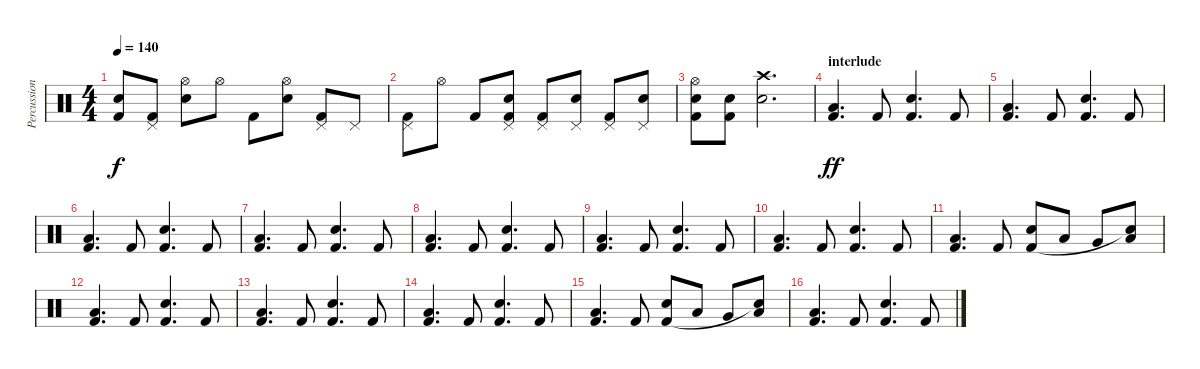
\track ("Percussions" "Percussion") {instrument percussion}
\staff {score}
\articulation defaults
\ts (4 4)
\tempo 140
\clef neutral
\ks c
("Snare (hit)"{t} "Kick (hit) 2").8{dy f} ("Pedal Hi-Hat (hit)" "Kick (hit) 2").8 ("Hi-Hat (open)" "Snare (hit) 2").8 "Hi-Hat (open)".8 "Kick (hit) 2".8 ("Hi-Hat (open)" "Snare (hit) 2").8 ("Pedal Hi-Hat (hit)" "Kick (hit) 2").8 "Pedal Hi-Hat (hit)".8 |
("Pedal Hi-Hat (hit)" "Kick (hit) 2").8 "Hi-Hat (open)".8 "Kick (hit) 2".8 ("Pedal Hi-Hat (hit)" "Snare (hit) 2" "Kick (hit) 2").8 ("Pedal Hi-Hat (hit)" "Kick (hit) 2").8 ("Pedal Hi-Hat (hit)" "Snare (hit) 2").8 ("Pedal Hi-Hat (hit)" "Kick (hit) 2").8 ("Pedal Hi-Hat (hit)" "Snare (hit) 2").8 |
("Hi-Hat (open)" "Snare (hit) 2" "Kick (hit) 2").8 ("Snare (hit) 2" "Kick (hit) 2").8 ("Crash high (hit)" "Electric Snare (hit)").2{d} |
\section ("" "interlude")
("Low Floor Tom (hit)" "Kick (hit) 2").4{d dy ff} "Kick (hit) 2".8 ("Snare (hit) 2" "Kick (hit) 2").4{d} "Kick (hit) 2".8 |
("Low Floor Tom (hit)" "Kick (hit) 2").4{d} "Kick (hit) 2".8 ("Snare (hit) 2" "Kick (hit) 2").4{d} "Kick (hit) 2".8 |
("Low Floor Tom (hit)" "Kick (hit) 2").4{d} "Kick (hit) 2".8 ("Snare (hit) 2" "Kick (hit) 2").4{d} "Kick (hit) 2".8 |
("Low Floor Tom (hit)" "Kick (hit) 2").4{d} "Kick (hit) 2".8 ("Snare (hit) 2" "Kick (hit) 2").4{d} "Kick (hit) 2".8 |
("Low Floor Tom (hit)" "Kick (hit) 2").4{d} "Kick (hit) 2".8 ("Snare (hit) 2" "Kick (hit) 2").4{d} "Kick (hit) 2".8 |
("Low Floor Tom (hit)" "Kick (hit) 2").4{d} "Kick (hit) 2".8 ("Snare (hit) 2" "Kick (hit) 2").4{d} "Kick (hit) 2".8 |
("Low Floor Tom (hit)" "Kick (hit) 2").4{d} "Kick (hit) 2".8 ("Snare (hit) 2" "Kick (hit) 2").4{d} "Kick (hit) 2".8 |
("Low Floor Tom (hit)" "Kick (hit) 2").4{d} "Kick (hit) 2".8 ("Snare (hit) 2" "Kick (hit) 2").8 "Low Tom (hit)".8 "Very Low Tom (hit)".8 ("Low Floor Tom (hit)" "Snare (hit)"{t}).8 |
("Low Floor Tom (hit)" "Kick (hit) 2").4{d} "Kick (hit) 2".8 ("Snare (hit) 2" "Kick (hit) 2").4{d} "Kick (hit) 2".8 |
("Low Floor Tom (hit)" "Kick (hit) 2").4{d} "Kick (hit) 2".8 ("Snare (hit) 2" "Kick (hit) 2").4{d} "Kick (hit) 2".8 |
("Low Floor Tom (hit)" "Kick (hit) 2").4{d} "Kick (hit) 2".8 ("Snare (hit) 2" "Kick (hit) 2").4{d} "Kick (hit) 2".8 |
("Low Floor Tom (hit)" "Kick (hit) 2").4{d} "Kick (hit) 2".8 ("Snare (hit) 2" "Kick (hit) 2").8 "Low Tom (hit)".8 "Very Low Tom (hit)".8 ("Low Floor Tom (hit)" "Snare (hit)"{t}).8 |
("Low Floor Tom (hit)" "Kick (hit) 2").4{d} "Kick (hit) 2".8 ("Snare (hit) 2" "Kick (hit) 2").4{d} "Kick (hit) 2".8
